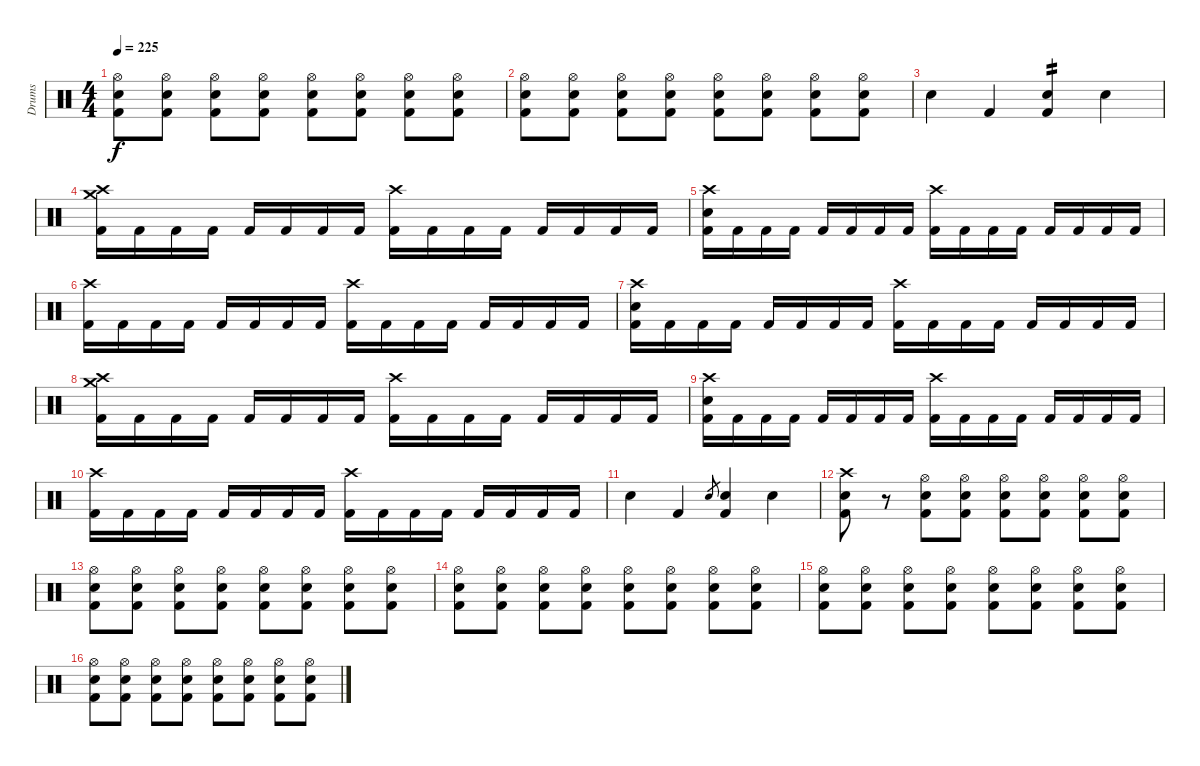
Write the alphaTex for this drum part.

\track ("Drums" "Drums") {instrument percussion}
\staff {score}
\articulation defaults
\ts (4 4)
\tempo 225
\clef neutral
\ks c
("Hi-Hat (open)" "Electric Snare (hit)" "Kick (hit) 2").8{dy f} ("Hi-Hat (open)" "Electric Snare (hit)" "Kick (hit) 2").8 ("Hi-Hat (open)" "Electric Snare (hit)" "Kick (hit) 2").8 ("Hi-Hat (open)" "Electric Snare (hit)" "Kick (hit) 2").8 ("Hi-Hat (open)" "Electric Snare (hit)" "Kick (hit) 2").8 ("Hi-Hat (open)" "Electric Snare (hit)" "Kick (hit) 2").8 ("Hi-Hat (open)" "Electric Snare (hit)" "Kick (hit) 2").8 ("Hi-Hat (open)" "Electric Snare (hit)" "Kick (hit) 2").8 |
("Hi-Hat (open)" "Electric Snare (hit)" "Kick (hit) 2").8 ("Hi-Hat (open)" "Electric Snare (hit)" "Kick (hit) 2").8 ("Hi-Hat (open)" "Electric Snare (hit)" "Kick (hit) 2").8 ("Hi-Hat (open)" "Electric Snare (hit)" "Kick (hit) 2").8 ("Hi-Hat (open)" "Electric Snare (hit)" "Kick (hit) 2").8 ("Hi-Hat (open)" "Electric Snare (hit)" "Kick (hit) 2").8 ("Hi-Hat (open)" "Electric Snare (hit)" "Kick (hit) 2").8 ("Hi-Hat (open)" "Electric Snare (hit)" "Kick (hit) 2").8 |
"Electric Snare (hit)".4 "Kick (hit) 2".4 ("Electric Snare (hit)" "Kick (hit) 2").4{tp 2} "Electric Snare (hit)".4 |
("Crash high (hit)" "Crash medium (hit)" "Kick (hit) 2").16 "Kick (hit) 2".16 "Kick (hit) 2".16 "Kick (hit) 2".16 "Kick (hit) 2".16 "Kick (hit) 2".16 "Kick (hit) 2".16 "Kick (hit) 2".16 ("Crash high (hit)" "Kick (hit) 2").16 "Kick (hit) 2".16 "Kick (hit) 2".16 "Kick (hit) 2".16 "Kick (hit) 2".16 "Kick (hit) 2".16 "Kick (hit) 2".16 "Kick (hit) 2".16 |
("Crash high (hit)" "Electric Snare (hit)" "Kick (hit) 2").16 "Kick (hit) 2".16 "Kick (hit) 2".16 "Kick (hit) 2".16 "Kick (hit) 2".16 "Kick (hit) 2".16 "Kick (hit) 2".16 "Kick (hit) 2".16 ("Crash high (hit)" "Kick (hit) 2").16 "Kick (hit) 2".16 "Kick (hit) 2".16 "Kick (hit) 2".16 "Kick (hit) 2".16 "Kick (hit) 2".16 "Kick (hit) 2".16 "Kick (hit) 2".16 |
("Crash high (hit)" "Kick (hit) 2").16 "Kick (hit) 2".16 "Kick (hit) 2".16 "Kick (hit) 2".16 "Kick (hit) 2".16 "Kick (hit) 2".16 "Kick (hit) 2".16 "Kick (hit) 2".16 ("Crash high (hit)" "Kick (hit) 2").16 "Kick (hit) 2".16 "Kick (hit) 2".16 "Kick (hit) 2".16 "Kick (hit) 2".16 "Kick (hit) 2".16 "Kick (hit) 2".16 "Kick (hit) 2".16 |
("Crash high (hit)" "Electric Snare (hit)" "Kick (hit) 2").16 "Kick (hit) 2".16 "Kick (hit) 2".16 "Kick (hit) 2".16 "Kick (hit) 2".16 "Kick (hit) 2".16 "Kick (hit) 2".16 "Kick (hit) 2".16 ("Crash high (hit)" "Kick (hit) 2").16 "Kick (hit) 2".16 "Kick (hit) 2".16 "Kick (hit) 2".16 "Kick (hit) 2".16 "Kick (hit) 2".16 "Kick (hit) 2".16 "Kick (hit) 2".16 |
("Crash high (hit)" "Crash medium (hit)" "Kick (hit) 2").16 "Kick (hit) 2".16 "Kick (hit) 2".16 "Kick (hit) 2".16 "Kick (hit) 2".16 "Kick (hit) 2".16 "Kick (hit) 2".16 "Kick (hit) 2".16 ("Crash high (hit)" "Kick (hit) 2").16 "Kick (hit) 2".16 "Kick (hit) 2".16 "Kick (hit) 2".16 "Kick (hit) 2".16 "Kick (hit) 2".16 "Kick (hit) 2".16 "Kick (hit) 2".16 |
("Crash high (hit)" "Electric Snare (hit)" "Kick (hit) 2").16 "Kick (hit) 2".16 "Kick (hit) 2".16 "Kick (hit) 2".16 "Kick (hit) 2".16 "Kick (hit) 2".16 "Kick (hit) 2".16 "Kick (hit) 2".16 ("Crash high (hit)" "Kick (hit) 2").16 "Kick (hit) 2".16 "Kick (hit) 2".16 "Kick (hit) 2".16 "Kick (hit) 2".16 "Kick (hit) 2".16 "Kick (hit) 2".16 "Kick (hit) 2".16 |
("Crash high (hit)" "Kick (hit) 2").16 "Kick (hit) 2".16 "Kick (hit) 2".16 "Kick (hit) 2".16 "Kick (hit) 2".16 "Kick (hit) 2".16 "Kick (hit) 2".16 "Kick (hit) 2".16 ("Crash high (hit)" "Kick (hit) 2").16 "Kick (hit) 2".16 "Kick (hit) 2".16 "Kick (hit) 2".16 "Kick (hit) 2".16 "Kick (hit) 2".16 "Kick (hit) 2".16 "Kick (hit) 2".16 |
"Electric Snare (hit)".4 "Kick (hit) 2".4 "Electric Snare (hit)".8{gr} ("Electric Snare (hit)" "Kick (hit) 2").4 "Electric Snare (hit)".4 |
("Crash high (hit)" "Electric Snare (hit)" "Kick (hit) 2").8 r.8 ("Hi-Hat (open)" "Electric Snare (hit)" "Kick (hit) 2").8 ("Hi-Hat (open)" "Electric Snare (hit)" "Kick (hit) 2").8 ("Hi-Hat (open)" "Electric Snare (hit)" "Kick (hit) 2").8 ("Hi-Hat (open)" "Electric Snare (hit)" "Kick (hit) 2").8 ("Hi-Hat (open)" "Electric Snare (hit)" "Kick (hit) 2").8 ("Hi-Hat (open)" "Electric Snare (hit)" "Kick (hit) 2").8 |
("Hi-Hat (open)" "Electric Snare (hit)" "Kick (hit) 2").8 ("Hi-Hat (open)" "Electric Snare (hit)" "Kick (hit) 2").8 ("Hi-Hat (open)" "Electric Snare (hit)" "Kick (hit) 2").8 ("Hi-Hat (open)" "Electric Snare (hit)" "Kick (hit) 2").8 ("Hi-Hat (open)" "Electric Snare (hit)" "Kick (hit) 2").8 ("Hi-Hat (open)" "Electric Snare (hit)" "Kick (hit) 2").8 ("Hi-Hat (open)" "Electric Snare (hit)" "Kick (hit) 2").8 ("Hi-Hat (open)" "Electric Snare (hit)" "Kick (hit) 2").8 |
("Hi-Hat (open)" "Electric Snare (hit)" "Kick (hit) 2").8 ("Hi-Hat (open)" "Electric Snare (hit)" "Kick (hit) 2").8 ("Hi-Hat (open)" "Electric Snare (hit)" "Kick (hit) 2").8 ("Hi-Hat (open)" "Electric Snare (hit)" "Kick (hit) 2").8 ("Hi-Hat (open)" "Electric Snare (hit)" "Kick (hit) 2").8 ("Hi-Hat (open)" "Electric Snare (hit)" "Kick (hit) 2").8 ("Hi-Hat (open)" "Electric Snare (hit)" "Kick (hit) 2").8 ("Hi-Hat (open)" "Electric Snare (hit)" "Kick (hit) 2").8 |
("Hi-Hat (open)" "Electric Snare (hit)" "Kick (hit) 2").8 ("Hi-Hat (open)" "Electric Snare (hit)" "Kick (hit) 2").8 ("Hi-Hat (open)" "Electric Snare (hit)" "Kick (hit) 2").8 ("Hi-Hat (open)" "Electric Snare (hit)" "Kick (hit) 2").8 ("Hi-Hat (open)" "Electric Snare (hit)" "Kick (hit) 2").8 ("Hi-Hat (open)" "Electric Snare (hit)" "Kick (hit) 2").8 ("Hi-Hat (open)" "Electric Snare (hit)" "Kick (hit) 2").8 ("Hi-Hat (open)" "Electric Snare (hit)" "Kick (hit) 2").8 |
("Hi-Hat (open)" "Electric Snare (hit)" "Kick (hit) 2").8 ("Hi-Hat (open)" "Electric Snare (hit)" "Kick (hit) 2").8 ("Hi-Hat (open)" "Electric Snare (hit)" "Kick (hit) 2").8 ("Hi-Hat (open)" "Electric Snare (hit)" "Kick (hit) 2").8 ("Hi-Hat (open)" "Electric Snare (hit)" "Kick (hit) 2").8 ("Hi-Hat (open)" "Electric Snare (hit)" "Kick (hit) 2").8 ("Hi-Hat (open)" "Electric Snare (hit)" "Kick (hit) 2").8 ("Hi-Hat (open)" "Electric Snare (hit)" "Kick (hit) 2").8
